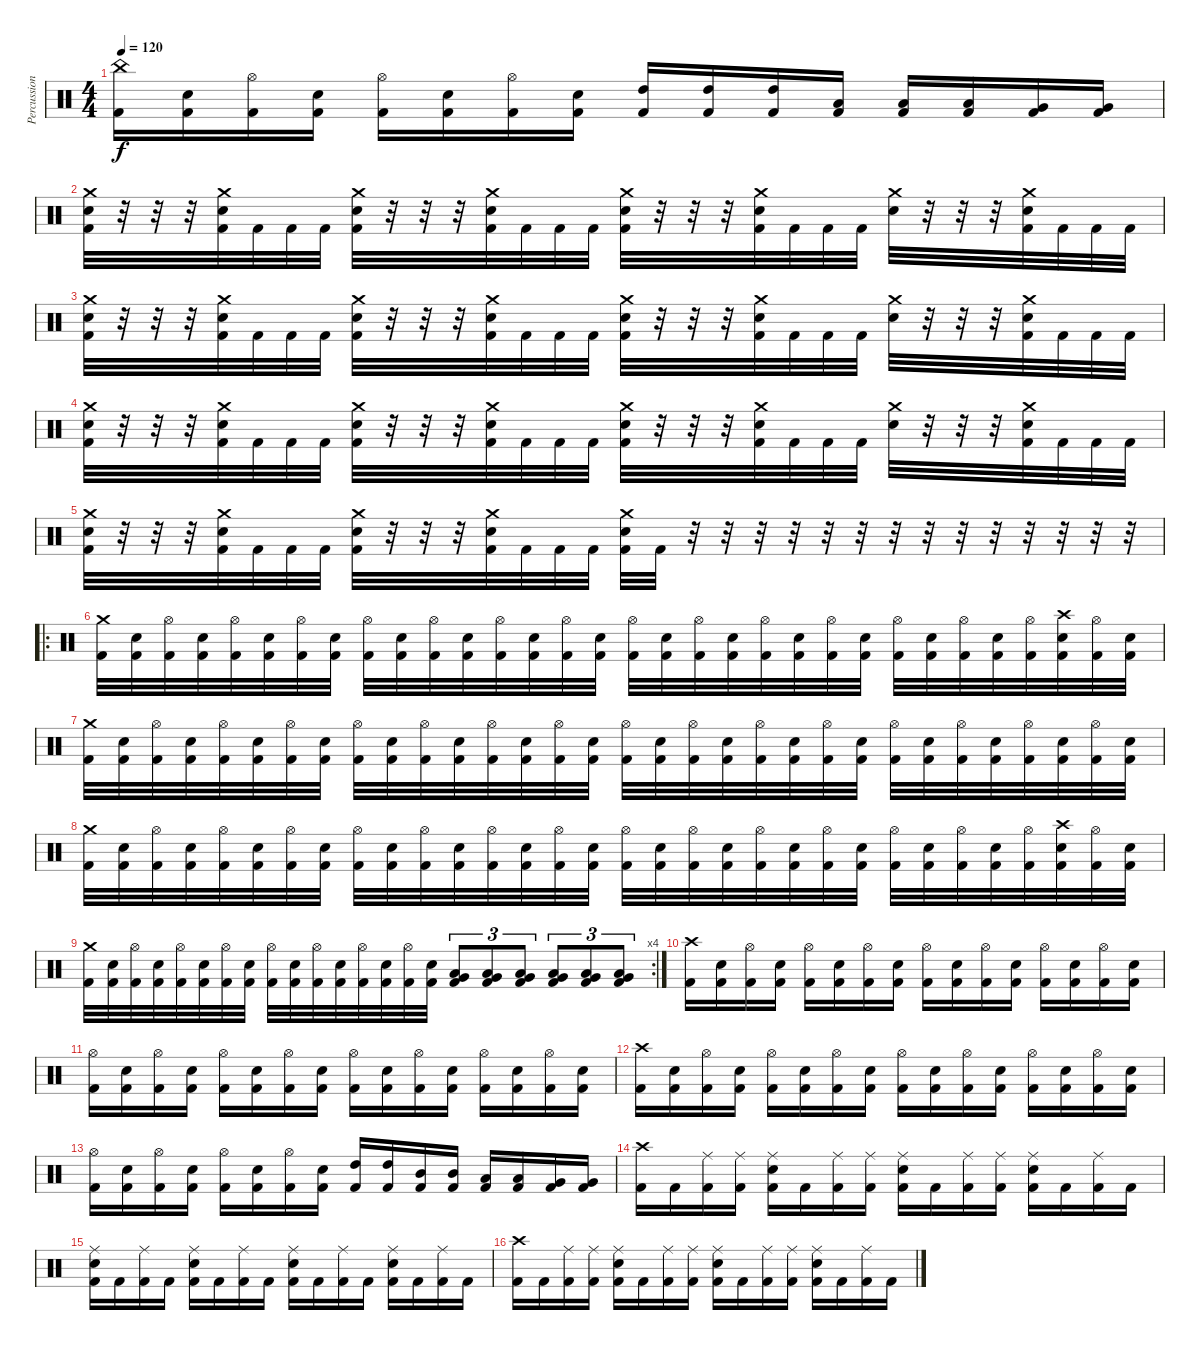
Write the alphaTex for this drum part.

\track ("Percussion" "Percussion") {instrument percussion}
\staff {score}
\articulation defaults
\ts (4 4)
\tempo 120
\clef neutral
\ks c
("China (hit)" "Kick (hit) 2").16{dy f} ("Snare (hit) 2" "Kick (hit) 2").16 ("Hi-Hat (open)" "Kick (hit) 2").16 ("Snare (hit) 2" "Kick (hit) 2").16 ("Hi-Hat (open)" "Kick (hit) 2").16 ("Snare (hit) 2" "Kick (hit) 2").16 ("Hi-Hat (open)" "Kick (hit) 2").16 ("Snare (hit) 2" "Kick (hit) 2").16 ("High Tom (hit)" "Kick (hit) 2").16 ("High Tom (hit)" "Kick (hit) 2").16 ("High Tom (hit)" "Kick (hit) 2").16 ("Low Tom (hit)" "Kick (hit) 2").16 ("Low Tom (hit)" "Kick (hit) 2").16 ("Low Tom (hit)" "Kick (hit) 2").16 ("Very Low Tom (hit)" "Kick (hit) 2").16 ("Very Low Tom (hit)" "Kick (hit) 2").16 |
("Crash medium (hit)" "Snare (hit) 2" "Kick (hit) 2").32 r.32 r.32 r.32 ("Crash medium (hit)" "Snare (hit) 2" "Kick (hit) 2").32 "Kick (hit) 2".32 "Kick (hit) 2".32 "Kick (hit) 2".32 ("Crash medium (hit)" "Snare (hit) 2" "Kick (hit) 2").32 r.32 r.32 r.32 ("Crash medium (hit)" "Snare (hit) 2" "Kick (hit) 2").32 "Kick (hit) 2".32 "Kick (hit) 2".32 "Kick (hit) 2".32 ("Crash medium (hit)" "Snare (hit) 2" "Kick (hit) 2").32 r.32 r.32 r.32 ("Crash medium (hit)" "Snare (hit) 2" "Kick (hit) 2").32 "Kick (hit) 2".32 "Kick (hit) 2".32 "Kick (hit) 2".32 ("Crash medium (hit)" "Snare (hit) 2").32 r.32 r.32 r.32 ("Crash medium (hit)" "Snare (hit) 2" "Kick (hit) 2").32 "Kick (hit) 2".32 "Kick (hit) 2".32 "Kick (hit) 2".32 |
("Crash medium (hit)" "Snare (hit) 2" "Kick (hit) 2").32 r.32 r.32 r.32 ("Crash medium (hit)" "Snare (hit) 2" "Kick (hit) 2").32 "Kick (hit) 2".32 "Kick (hit) 2".32 "Kick (hit) 2".32 ("Crash medium (hit)" "Snare (hit) 2" "Kick (hit) 2").32 r.32 r.32 r.32 ("Crash medium (hit)" "Snare (hit) 2" "Kick (hit) 2").32 "Kick (hit) 2".32 "Kick (hit) 2".32 "Kick (hit) 2".32 ("Crash medium (hit)" "Snare (hit) 2" "Kick (hit) 2").32 r.32 r.32 r.32 ("Crash medium (hit)" "Snare (hit) 2" "Kick (hit) 2").32 "Kick (hit) 2".32 "Kick (hit) 2".32 "Kick (hit) 2".32 ("Crash medium (hit)" "Snare (hit) 2").32 r.32 r.32 r.32 ("Crash medium (hit)" "Snare (hit) 2" "Kick (hit) 2").32 "Kick (hit) 2".32 "Kick (hit) 2".32 "Kick (hit) 2".32 |
("Crash medium (hit)" "Snare (hit) 2" "Kick (hit) 2").32 r.32 r.32 r.32 ("Crash medium (hit)" "Snare (hit) 2" "Kick (hit) 2").32 "Kick (hit) 2".32 "Kick (hit) 2".32 "Kick (hit) 2".32 ("Crash medium (hit)" "Snare (hit) 2" "Kick (hit) 2").32 r.32 r.32 r.32 ("Crash medium (hit)" "Snare (hit) 2" "Kick (hit) 2").32 "Kick (hit) 2".32 "Kick (hit) 2".32 "Kick (hit) 2".32 ("Crash medium (hit)" "Snare (hit) 2" "Kick (hit) 2").32 r.32 r.32 r.32 ("Crash medium (hit)" "Snare (hit) 2" "Kick (hit) 2").32 "Kick (hit) 2".32 "Kick (hit) 2".32 "Kick (hit) 2".32 ("Crash medium (hit)" "Snare (hit) 2").32 r.32 r.32 r.32 ("Crash medium (hit)" "Snare (hit) 2" "Kick (hit) 2").32 "Kick (hit) 2".32 "Kick (hit) 2".32 "Kick (hit) 2".32 |
("Crash medium (hit)" "Snare (hit) 2" "Kick (hit) 2").32 r.32 r.32 r.32 ("Crash medium (hit)" "Snare (hit) 2" "Kick (hit) 2").32 "Kick (hit) 2".32 "Kick (hit) 2".32 "Kick (hit) 2".32 ("Crash medium (hit)" "Snare (hit) 2" "Kick (hit) 2").32 r.32 r.32 r.32 ("Crash medium (hit)" "Snare (hit) 2" "Kick (hit) 2").32 "Kick (hit) 2".32 "Kick (hit) 2".32 "Kick (hit) 2".32 ("Crash medium (hit)" "Snare (hit) 2" "Kick (hit) 2").32 "Kick (hit) 2".32 r.32 r.32 r.32 r.32 r.32 r.32 r.32 r.32 r.32 r.32 r.32 r.32 r.32 r.32 |
\ro
("Crash medium (hit)" "Kick (hit) 2").32 ("Snare (hit) 2" "Kick (hit) 2").32 ("Hi-Hat (open)" "Kick (hit) 2").32 ("Snare (hit) 2" "Kick (hit) 2").32 ("Hi-Hat (open)" "Kick (hit) 2").32 ("Snare (hit) 2" "Kick (hit) 2").32 ("Hi-Hat (open)" "Kick (hit) 2").32 ("Snare (hit) 2" "Kick (hit) 2").32 ("Hi-Hat (open)" "Kick (hit) 2").32 ("Snare (hit) 2" "Kick (hit) 2").32 ("Hi-Hat (open)" "Kick (hit) 2").32 ("Snare (hit) 2" "Kick (hit) 2").32 ("Hi-Hat (open)" "Kick (hit) 2").32 ("Snare (hit) 2" "Kick (hit) 2").32 ("Hi-Hat (open)" "Kick (hit) 2").32 ("Snare (hit) 2" "Kick (hit) 2").32 ("Hi-Hat (open)" "Kick (hit) 2").32 ("Snare (hit) 2" "Kick (hit) 2").32 ("Hi-Hat (open)" "Kick (hit) 2").32 ("Snare (hit) 2" "Kick (hit) 2").32 ("Hi-Hat (open)" "Kick (hit) 2").32 ("Snare (hit) 2" "Kick (hit) 2").32 ("Hi-Hat (open)" "Kick (hit) 2").32 ("Snare (hit) 2" "Kick (hit) 2").32 ("Hi-Hat (open)" "Kick (hit) 2").32 ("Snare (hit) 2" "Kick (hit) 2").32 ("Hi-Hat (open)" "Kick (hit) 2").32 ("Snare (hit) 2" "Kick (hit) 2").32 ("Hi-Hat (open)" "Kick (hit) 2").32 ("Crash high (hit)" "Snare (hit) 2" "Kick (hit) 2").32 ("Hi-Hat (open)" "Kick (hit) 2").32 ("Snare (hit) 2" "Kick (hit) 2").32 |
("Crash medium (hit)" "Kick (hit) 2").32 ("Snare (hit) 2" "Kick (hit) 2").32 ("Hi-Hat (open)" "Kick (hit) 2").32 ("Snare (hit) 2" "Kick (hit) 2").32 ("Hi-Hat (open)" "Kick (hit) 2").32 ("Snare (hit) 2" "Kick (hit) 2").32 ("Hi-Hat (open)" "Kick (hit) 2").32 ("Snare (hit) 2" "Kick (hit) 2").32 ("Hi-Hat (open)" "Kick (hit) 2").32 ("Snare (hit) 2" "Kick (hit) 2").32 ("Hi-Hat (open)" "Kick (hit) 2").32 ("Snare (hit) 2" "Kick (hit) 2").32 ("Hi-Hat (open)" "Kick (hit) 2").32 ("Snare (hit) 2" "Kick (hit) 2").32 ("Hi-Hat (open)" "Kick (hit) 2").32 ("Snare (hit) 2" "Kick (hit) 2").32 ("Hi-Hat (open)" "Kick (hit) 2").32 ("Snare (hit) 2" "Kick (hit) 2").32 ("Hi-Hat (open)" "Kick (hit) 2").32 ("Snare (hit) 2" "Kick (hit) 2").32 ("Hi-Hat (open)" "Kick (hit) 2").32 ("Snare (hit) 2" "Kick (hit) 2").32 ("Hi-Hat (open)" "Kick (hit) 2").32 ("Snare (hit) 2" "Kick (hit) 2").32 ("Hi-Hat (open)" "Kick (hit) 2").32 ("Snare (hit) 2" "Kick (hit) 2").32 ("Hi-Hat (open)" "Kick (hit) 2").32 ("Snare (hit) 2" "Kick (hit) 2").32 ("Hi-Hat (open)" "Kick (hit) 2").32 ("Snare (hit) 2" "Kick (hit) 2").32 ("Hi-Hat (open)" "Kick (hit) 2").32 ("Snare (hit) 2" "Kick (hit) 2").32 |
("Crash medium (hit)" "Kick (hit) 2").32 ("Snare (hit) 2" "Kick (hit) 2").32 ("Hi-Hat (open)" "Kick (hit) 2").32 ("Snare (hit) 2" "Kick (hit) 2").32 ("Hi-Hat (open)" "Kick (hit) 2").32 ("Snare (hit) 2" "Kick (hit) 2").32 ("Hi-Hat (open)" "Kick (hit) 2").32 ("Snare (hit) 2" "Kick (hit) 2").32 ("Hi-Hat (open)" "Kick (hit) 2").32 ("Snare (hit) 2" "Kick (hit) 2").32 ("Hi-Hat (open)" "Kick (hit) 2").32 ("Snare (hit) 2" "Kick (hit) 2").32 ("Hi-Hat (open)" "Kick (hit) 2").32 ("Snare (hit) 2" "Kick (hit) 2").32 ("Hi-Hat (open)" "Kick (hit) 2").32 ("Snare (hit) 2" "Kick (hit) 2").32 ("Hi-Hat (open)" "Kick (hit) 2").32 ("Snare (hit) 2" "Kick (hit) 2").32 ("Hi-Hat (open)" "Kick (hit) 2").32 ("Snare (hit) 2" "Kick (hit) 2").32 ("Hi-Hat (open)" "Kick (hit) 2").32 ("Snare (hit) 2" "Kick (hit) 2").32 ("Hi-Hat (open)" "Kick (hit) 2").32 ("Snare (hit) 2" "Kick (hit) 2").32 ("Hi-Hat (open)" "Kick (hit) 2").32 ("Snare (hit) 2" "Kick (hit) 2").32 ("Hi-Hat (open)" "Kick (hit) 2").32 ("Snare (hit) 2" "Kick (hit) 2").32 ("Hi-Hat (open)" "Kick (hit) 2").32 ("Crash high (hit)" "Snare (hit) 2" "Kick (hit) 2").32 ("Hi-Hat (open)" "Kick (hit) 2").32 ("Snare (hit) 2" "Kick (hit) 2").32 |
\rc 4
("Crash medium (hit)" "Kick (hit) 2").32 ("Snare (hit) 2" "Kick (hit) 2").32 ("Hi-Hat (open)" "Kick (hit) 2").32 ("Snare (hit) 2" "Kick (hit) 2").32 ("Hi-Hat (open)" "Kick (hit) 2").32 ("Snare (hit) 2" "Kick (hit) 2").32 ("Hi-Hat (open)" "Kick (hit) 2").32 ("Snare (hit) 2" "Kick (hit) 2").32 ("Hi-Hat (open)" "Kick (hit) 2").32 ("Snare (hit) 2" "Kick (hit) 2").32 ("Hi-Hat (open)" "Kick (hit) 2").32 ("Snare (hit) 2" "Kick (hit) 2").32 ("Hi-Hat (open)" "Kick (hit) 2").32 ("Snare (hit) 2" "Kick (hit) 2").32 ("Hi-Hat (open)" "Kick (hit) 2").32 ("Snare (hit) 2" "Kick (hit) 2").32 ("Low Floor Tom (hit)" "Very Low Tom (hit)" "Kick (hit) 2").8{tu (3 2)} ("Low Floor Tom (hit)" "Very Low Tom (hit)" "Kick (hit) 2").8{tu (3 2)} ("Low Floor Tom (hit)" "Very Low Tom (hit)" "Kick (hit) 2").8{tu (3 2)} ("Very Low Tom (hit)" "Low Tom (hit)" "Kick (hit) 2").8{tu (3 2)} ("Very Low Tom (hit)" "Low Tom (hit)" "Kick (hit) 2").8{tu (3 2)} ("Very Low Tom (hit)" "Low Tom (hit)" "Kick (hit) 2").8{tu (3 2)} |
("Crash high (hit)" "Kick (hit) 2").16 ("Snare (hit) 2" "Kick (hit) 2").16 ("Hi-Hat (open)" "Kick (hit) 2").16 ("Snare (hit) 2" "Kick (hit) 2").16 ("Hi-Hat (open)" "Kick (hit) 2").16 ("Snare (hit) 2" "Kick (hit) 2").16 ("Hi-Hat (open)" "Kick (hit) 2").16 ("Snare (hit) 2" "Kick (hit) 2").16 ("Hi-Hat (open)" "Kick (hit) 2").16 ("Snare (hit) 2" "Kick (hit) 2").16 ("Hi-Hat (open)" "Kick (hit) 2").16 ("Snare (hit) 2" "Kick (hit) 2").16 ("Hi-Hat (open)" "Kick (hit) 2").16 ("Snare (hit) 2" "Kick (hit) 2").16 ("Hi-Hat (open)" "Kick (hit) 2").16 ("Snare (hit) 2" "Kick (hit) 2").16 |
("Hi-Hat (open)" "Kick (hit) 2").16 ("Snare (hit) 2" "Kick (hit) 2").16 ("Hi-Hat (open)" "Kick (hit) 2").16 ("Snare (hit) 2" "Kick (hit) 2").16 ("Hi-Hat (open)" "Kick (hit) 2").16 ("Snare (hit) 2" "Kick (hit) 2").16 ("Hi-Hat (open)" "Kick (hit) 2").16 ("Snare (hit) 2" "Kick (hit) 2").16 ("Hi-Hat (open)" "Kick (hit) 2").16 ("Snare (hit) 2" "Kick (hit) 2").16 ("Hi-Hat (open)" "Kick (hit) 2").16 ("Snare (hit) 2" "Kick (hit) 2").16 ("Hi-Hat (open)" "Kick (hit) 2").16 ("Snare (hit) 2" "Kick (hit) 2").16 ("Hi-Hat (open)" "Kick (hit) 2").16 ("Snare (hit) 2" "Kick (hit) 2").16 |
("Crash high (hit)" "Kick (hit) 2").16 ("Snare (hit) 2" "Kick (hit) 2").16 ("Hi-Hat (open)" "Kick (hit) 2").16 ("Snare (hit) 2" "Kick (hit) 2").16 ("Hi-Hat (open)" "Kick (hit) 2").16 ("Snare (hit) 2" "Kick (hit) 2").16 ("Hi-Hat (open)" "Kick (hit) 2").16 ("Snare (hit) 2" "Kick (hit) 2").16 ("Hi-Hat (open)" "Kick (hit) 2").16 ("Snare (hit) 2" "Kick (hit) 2").16 ("Hi-Hat (open)" "Kick (hit) 2").16 ("Snare (hit) 2" "Kick (hit) 2").16 ("Hi-Hat (open)" "Kick (hit) 2").16 ("Snare (hit) 2" "Kick (hit) 2").16 ("Hi-Hat (open)" "Kick (hit) 2").16 ("Snare (hit) 2" "Kick (hit) 2").16 |
("Hi-Hat (open)" "Kick (hit) 2").16 ("Snare (hit) 2" "Kick (hit) 2").16 ("Hi-Hat (open)" "Kick (hit) 2").16 ("Snare (hit) 2" "Kick (hit) 2").16 ("Hi-Hat (open)" "Kick (hit) 2").16 ("Snare (hit) 2" "Kick (hit) 2").16 ("Hi-Hat (open)" "Kick (hit) 2").16 ("Snare (hit) 2" "Kick (hit) 2").16 ("High Tom (hit)" "Kick (hit) 2").16 ("High Tom (hit)" "Kick (hit) 2").16 ("Mid Tom (hit)" "Kick (hit) 2").16 ("Mid Tom (hit)" "Kick (hit) 2").16 ("Low Tom (hit)" "Kick (hit) 2").16 ("Low Tom (hit)" "Kick (hit) 2").16 ("Very Low Tom (hit)" "Kick (hit) 2").16 ("Very Low Tom (hit)" "Kick (hit) 2").16 |
("Crash high (hit)" "Kick (hit) 2").16 "Kick (hit) 2".16 ("Ride (middle)" "Kick (hit) 2").16 ("Ride (middle)" "Kick (hit) 2").16 ("Ride (middle)" "Snare (hit) 2" "Kick (hit) 2").16 "Kick (hit) 2".16 ("Ride (middle)" "Kick (hit) 2").16 ("Ride (middle)" "Kick (hit) 2").16 ("Ride (middle)" "Snare (hit) 2" "Kick (hit) 2").16 "Kick (hit) 2".16 ("Ride (middle)" "Kick (hit) 2").16 ("Ride (middle)" "Kick (hit) 2").16 ("Ride (middle)" "Snare (hit) 2" "Kick (hit) 2").16 "Kick (hit) 2".16 ("Ride (middle)" "Kick (hit) 2").16 "Kick (hit) 2".16 |
("Ride (middle)" "Snare (hit) 2" "Kick (hit) 2").16 "Kick (hit) 2".16 ("Ride (middle)" "Kick (hit) 2").16 "Kick (hit) 2".16 ("Ride (middle)" "Snare (hit) 2" "Kick (hit) 2").16 "Kick (hit) 2".16 ("Ride (middle)" "Kick (hit) 2").16 "Kick (hit) 2".16 ("Ride (middle)" "Snare (hit) 2" "Kick (hit) 2").16 "Kick (hit) 2".16 ("Ride (middle)" "Kick (hit) 2").16 "Kick (hit) 2".16 ("Ride (middle)" "Snare (hit) 2" "Kick (hit) 2").16 "Kick (hit) 2".16 ("Ride (middle)" "Kick (hit) 2").16 "Kick (hit) 2".16 |
("Crash high (hit)" "Kick (hit) 2").16 "Kick (hit) 2".16 ("Ride (middle)" "Kick (hit) 2").16 ("Ride (middle)" "Kick (hit) 2").16 ("Ride (middle)" "Snare (hit) 2" "Kick (hit) 2").16 "Kick (hit) 2".16 ("Ride (middle)" "Kick (hit) 2").16 ("Ride (middle)" "Kick (hit) 2").16 ("Ride (middle)" "Snare (hit) 2" "Kick (hit) 2").16 "Kick (hit) 2".16 ("Ride (middle)" "Kick (hit) 2").16 ("Ride (middle)" "Kick (hit) 2").16 ("Ride (middle)" "Snare (hit) 2" "Kick (hit) 2").16 "Kick (hit) 2".16 ("Ride (middle)" "Kick (hit) 2").16 "Kick (hit) 2".16
